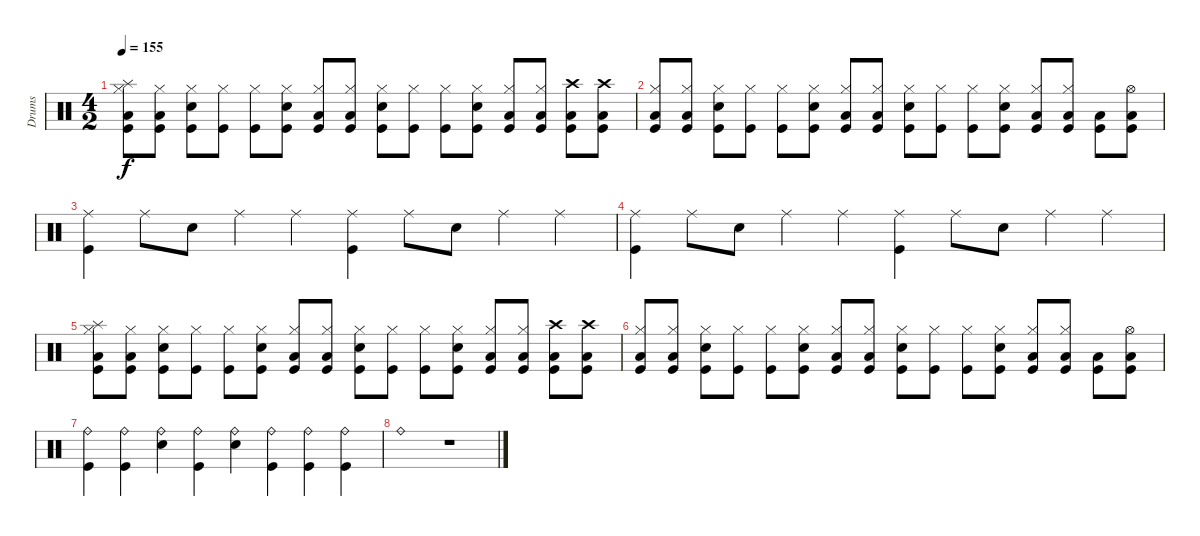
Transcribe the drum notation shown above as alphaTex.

\track ("Drums" "Drums") {instrument percussion}
\staff {score}
\articulation defaults
\ts (4 2)
\tempo 155
\clef neutral
\ks c
("Kick (hit)" "Hi-Hat (closed)" "Low Floor Tom (hit)" "Splash (hit)").8{dy f} ("Kick (hit)" "Hi-Hat (closed)" "Low Floor Tom (hit)").8 ("Kick (hit)" "Snare (hit) 2" "Hi-Hat (closed)").8 ("Kick (hit)" "Hi-Hat (closed)").8 ("Kick (hit)" "Hi-Hat (closed)").8 ("Kick (hit)" "Snare (hit) 2" "Hi-Hat (closed)").8 ("Kick (hit)" "Hi-Hat (closed)" "Low Floor Tom (hit)").8 ("Kick (hit)" "Hi-Hat (closed)" "Low Floor Tom (hit)").8 ("Kick (hit)" "Snare (hit) 2" "Hi-Hat (closed)").8 ("Kick (hit)" "Hi-Hat (closed)").8 ("Kick (hit)" "Hi-Hat (closed)").8 ("Kick (hit)" "Snare (hit) 2" "Hi-Hat (closed)").8 ("Kick (hit)" "Hi-Hat (closed)" "Low Floor Tom (hit)").8 ("Kick (hit)" "Hi-Hat (closed)" "Low Floor Tom (hit)").8 ("Kick (hit)" "Crash high (hit)" "Low Floor Tom (hit)").8 ("Kick (hit)" "Crash high (hit)" "Low Floor Tom (hit)").8 |
("Kick (hit)" "Hi-Hat (closed)" "Low Floor Tom (hit)").8 ("Kick (hit)" "Hi-Hat (closed)" "Low Floor Tom (hit)").8 ("Kick (hit)" "Snare (hit) 2" "Hi-Hat (closed)").8 ("Kick (hit)" "Hi-Hat (closed)").8 ("Kick (hit)" "Hi-Hat (closed)").8 ("Kick (hit)" "Snare (hit) 2" "Hi-Hat (closed)").8 ("Kick (hit)" "Hi-Hat (closed)" "Low Floor Tom (hit)").8 ("Kick (hit)" "Hi-Hat (closed)" "Low Floor Tom (hit)").8 ("Kick (hit)" "Snare (hit) 2" "Hi-Hat (closed)").8 ("Kick (hit)" "Hi-Hat (closed)").8 ("Kick (hit)" "Hi-Hat (closed)").8 ("Kick (hit)" "Snare (hit) 2" "Hi-Hat (closed)").8 ("Kick (hit)" "Hi-Hat (closed)" "Low Floor Tom (hit)").8 ("Kick (hit)" "Hi-Hat (closed)" "Low Floor Tom (hit)").8 ("Kick (hit)" "Low Floor Tom (hit)").8 ("Kick (hit)" "Hi-Hat (open)" "Low Floor Tom (hit)").8 |
("Ride (middle)" "Kick (hit)").4 "Ride (middle)".8 "Snare (hit) 2".8 "Ride (middle)".4 "Ride (middle)".4 ("Ride (middle)" "Kick (hit)").4 "Ride (middle)".8 "Snare (hit) 2".8 "Ride (middle)".4 "Ride (middle)".4 |
("Ride (middle)" "Kick (hit)").4 "Ride (middle)".8 "Snare (hit) 2".8 "Ride (middle)".4 "Ride (middle)".4 ("Ride (middle)" "Kick (hit)").4 "Ride (middle)".8 "Snare (hit) 2".8 "Ride (middle)".4 "Ride (middle)".4 |
("Kick (hit)" "Hi-Hat (closed)" "Low Floor Tom (hit)" "Splash (hit)").8 ("Kick (hit)" "Hi-Hat (closed)" "Low Floor Tom (hit)").8 ("Kick (hit)" "Snare (hit) 2" "Hi-Hat (closed)").8 ("Kick (hit)" "Hi-Hat (closed)").8 ("Kick (hit)" "Hi-Hat (closed)").8 ("Kick (hit)" "Snare (hit) 2" "Hi-Hat (closed)").8 ("Kick (hit)" "Hi-Hat (closed)" "Low Floor Tom (hit)").8 ("Kick (hit)" "Hi-Hat (closed)" "Low Floor Tom (hit)").8 ("Kick (hit)" "Snare (hit) 2" "Hi-Hat (closed)").8 ("Kick (hit)" "Hi-Hat (closed)").8 ("Kick (hit)" "Hi-Hat (closed)").8 ("Kick (hit)" "Snare (hit) 2" "Hi-Hat (closed)").8 ("Kick (hit)" "Hi-Hat (closed)" "Low Floor Tom (hit)").8 ("Kick (hit)" "Hi-Hat (closed)" "Low Floor Tom (hit)").8 ("Kick (hit)" "Crash high (hit)" "Low Floor Tom (hit)").8 ("Kick (hit)" "Crash high (hit)" "Low Floor Tom (hit)").8 |
("Kick (hit)" "Hi-Hat (closed)" "Low Floor Tom (hit)").8 ("Kick (hit)" "Hi-Hat (closed)" "Low Floor Tom (hit)").8 ("Kick (hit)" "Snare (hit) 2" "Hi-Hat (closed)").8 ("Kick (hit)" "Hi-Hat (closed)").8 ("Kick (hit)" "Hi-Hat (closed)").8 ("Kick (hit)" "Snare (hit) 2" "Hi-Hat (closed)").8 ("Kick (hit)" "Hi-Hat (closed)" "Low Floor Tom (hit)").8 ("Kick (hit)" "Hi-Hat (closed)" "Low Floor Tom (hit)").8 ("Kick (hit)" "Snare (hit) 2" "Hi-Hat (closed)").8 ("Kick (hit)" "Hi-Hat (closed)").8 ("Kick (hit)" "Hi-Hat (closed)").8 ("Kick (hit)" "Snare (hit) 2" "Hi-Hat (closed)").8 ("Kick (hit)" "Hi-Hat (closed)" "Low Floor Tom (hit)").8 ("Kick (hit)" "Hi-Hat (closed)" "Low Floor Tom (hit)").8 ("Kick (hit)" "Low Floor Tom (hit)").8 ("Kick (hit)" "Hi-Hat (open)" "Low Floor Tom (hit)").8 |
("Ride (bell)" "Kick (hit)").4 ("Ride (bell)" "Kick (hit)").4 ("Hand Clap (hit)" "Ride (bell)").4 ("Kick (hit)" "Ride (bell)").4 ("Hand Clap (hit)" "Ride (bell)").4 ("Kick (hit)" "Ride (bell)").4 ("Kick (hit)" "Ride (bell)").4 ("Kick (hit)" "Ride (bell)").4 |
"Ride (bell)".1 r.1
